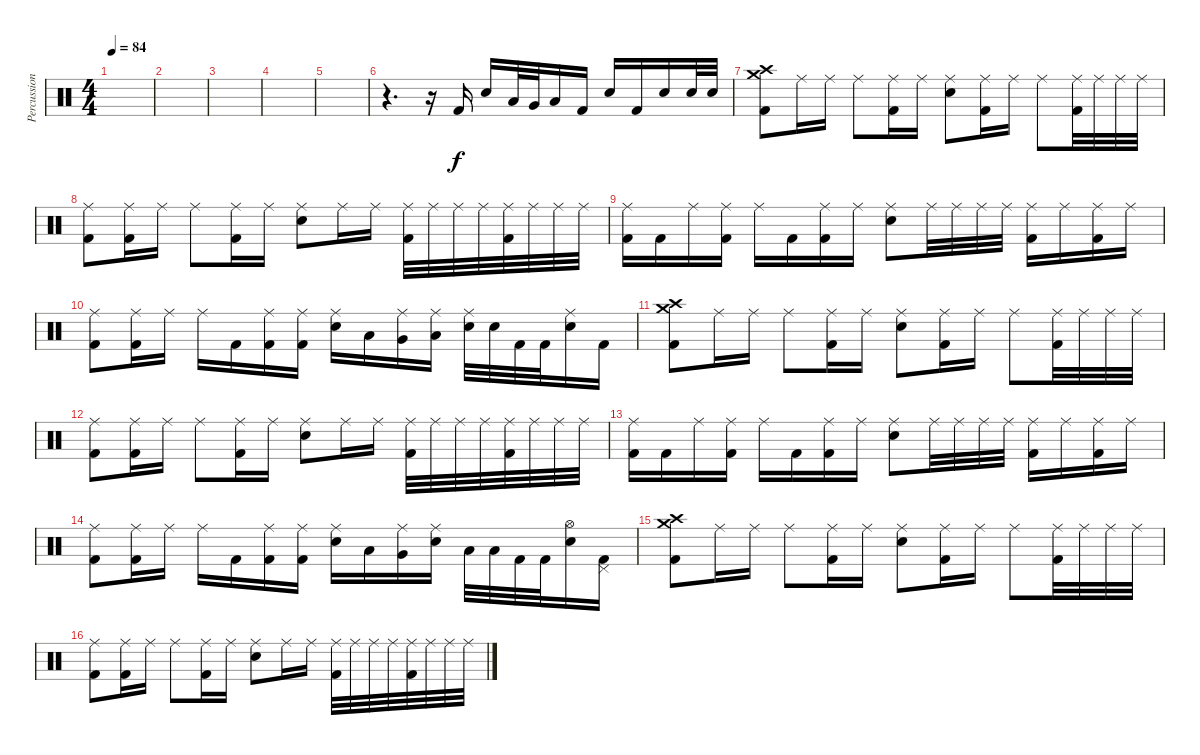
\track ("Percussion" "Percussion") {instrument percussion}
\staff {score}
\articulation defaults
\ts (4 4)
\tempo 84
\clef neutral
\ks c
|
|
|
|
|
r.4{d} r.16 "Kick (hit) 2".16 "Electric Snare (hit)".16 "Low Tom (hit)".32 "Very Low Tom (hit)".32 "Low Floor Tom (hit)".16 "Kick (hit) 2".16 "Electric Snare (hit)".16 "Kick (hit) 2".16 "Electric Snare (hit)".16 "Electric Snare (hit)".32 "Electric Snare (hit)".32 |
("Crash high (hit)" "Crash medium (hit)" "Kick (hit) 2").8 "Ride (middle)".16 "Ride (middle)".16 "Ride (middle)".8 ("Ride (middle)" "Kick (hit) 2").16 "Ride (middle)".16 ("Ride (middle)" "Electric Snare (hit)").8 ("Ride (middle)" "Kick (hit) 2").16 "Ride (middle)".16 "Ride (middle)".8 ("Ride (middle)" "Kick (hit) 2").32 "Ride (middle)".32 "Ride (middle)".32 "Ride (middle)".32 |
("Ride (middle)" "Kick (hit) 2").8 ("Ride (middle)" "Kick (hit) 2").16 "Ride (middle)".16 "Ride (middle)".8 ("Ride (middle)" "Kick (hit) 2").16 "Ride (middle)".16 ("Ride (middle)" "Electric Snare (hit)").8 "Ride (middle)".16 "Ride (middle)".16 ("Ride (middle)" "Kick (hit) 2").32 "Ride (middle)".32 "Ride (middle)".32 "Ride (middle)".32 ("Ride (middle)" "Kick (hit) 2").32 "Ride (middle)".32 "Ride (middle)".32 "Ride (middle)".32 |
("Ride (middle)" "Kick (hit) 2").16 "Kick (hit) 2".16 "Ride (middle)".16 ("Ride (middle)" "Kick (hit) 2").16 "Ride (middle)".16 "Kick (hit) 2".16 ("Ride (middle)" "Kick (hit) 2").16 "Ride (middle)".16 ("Ride (middle)" "Electric Snare (hit)").8 "Ride (middle)".32 "Ride (middle)".32 "Ride (middle)".32 "Ride (middle)".32 ("Ride (middle)" "Kick (hit) 2").16 "Ride (middle)".16 ("Ride (middle)" "Kick (hit) 2").16 "Ride (middle)".16 |
("Ride (middle)" "Kick (hit) 2").8 ("Ride (middle)" "Kick (hit) 2").16 "Ride (middle)".16 "Ride (middle)".16 "Kick (hit) 2".16 ("Ride (middle)" "Kick (hit) 2").16 ("Ride (middle)" "Kick (hit) 2").16 ("Ride (middle)" "Electric Snare (hit)").16 "Low Tom (hit)".16 ("Ride (middle)" "Very Low Tom (hit)").16 ("Ride (middle)" "Low Floor Tom (hit)").16 ("Ride (middle)" "Electric Snare (hit)").32 "Electric Snare (hit)".32 "Kick (hit) 2".32 "Kick (hit) 2".32 ("Ride (middle)" "Electric Snare (hit)").16 "Kick (hit) 2".16 |
("Crash high (hit)" "Crash medium (hit)" "Kick (hit) 2").8 "Ride (middle)".16 "Ride (middle)".16 "Ride (middle)".8 ("Ride (middle)" "Kick (hit) 2").16 "Ride (middle)".16 ("Ride (middle)" "Electric Snare (hit)").8 ("Ride (middle)" "Kick (hit) 2").16 "Ride (middle)".16 "Ride (middle)".8 ("Ride (middle)" "Kick (hit) 2").32 "Ride (middle)".32 "Ride (middle)".32 "Ride (middle)".32 |
("Ride (middle)" "Kick (hit) 2").8 ("Ride (middle)" "Kick (hit) 2").16 "Ride (middle)".16 "Ride (middle)".8 ("Ride (middle)" "Kick (hit) 2").16 "Ride (middle)".16 ("Ride (middle)" "Electric Snare (hit)").8 "Ride (middle)".16 "Ride (middle)".16 ("Ride (middle)" "Kick (hit) 2").32 "Ride (middle)".32 "Ride (middle)".32 "Ride (middle)".32 ("Ride (middle)" "Kick (hit) 2").32 "Ride (middle)".32 "Ride (middle)".32 "Ride (middle)".32 |
("Ride (middle)" "Kick (hit) 2").16 "Kick (hit) 2".16 "Ride (middle)".16 ("Ride (middle)" "Kick (hit) 2").16 "Ride (middle)".16 "Kick (hit) 2".16 ("Ride (middle)" "Kick (hit) 2").16 "Ride (middle)".16 ("Ride (middle)" "Electric Snare (hit)").8 "Ride (middle)".32 "Ride (middle)".32 "Ride (middle)".32 "Ride (middle)".32 ("Ride (middle)" "Kick (hit) 2").16 "Ride (middle)".16 ("Ride (middle)" "Kick (hit) 2").16 "Ride (middle)".16 |
("Ride (middle)" "Kick (hit) 2").8 ("Ride (middle)" "Kick (hit) 2").16 "Ride (middle)".16 "Ride (middle)".16 "Kick (hit) 2".16 ("Ride (middle)" "Kick (hit) 2").16 ("Ride (middle)" "Kick (hit) 2").16 ("Ride (middle)" "Electric Snare (hit)").16 "Low Tom (hit)".16 ("Ride (middle)" "Very Low Tom (hit)").16 ("Ride (middle)" "Electric Snare (hit)").16 "Low Floor Tom (hit)".32 "Low Floor Tom (hit)".32 "Kick (hit) 2".32 "Kick (hit) 2".32 ("Hi-Hat (open)" "Electric Snare (hit)").16 ("Pedal Hi-Hat (hit)" "Kick (hit) 2").16 |
("Crash high (hit)" "Crash medium (hit)" "Kick (hit) 2").8 "Ride (middle)".16 "Ride (middle)".16 "Ride (middle)".8 ("Ride (middle)" "Kick (hit) 2").16 "Ride (middle)".16 ("Ride (middle)" "Electric Snare (hit)").8 ("Ride (middle)" "Kick (hit) 2").16 "Ride (middle)".16 "Ride (middle)".8 ("Ride (middle)" "Kick (hit) 2").32 "Ride (middle)".32 "Ride (middle)".32 "Ride (middle)".32 |
("Ride (middle)" "Kick (hit) 2").8 ("Ride (middle)" "Kick (hit) 2").16 "Ride (middle)".16 "Ride (middle)".8 ("Ride (middle)" "Kick (hit) 2").16 "Ride (middle)".16 ("Ride (middle)" "Electric Snare (hit)").8 "Ride (middle)".16 "Ride (middle)".16 ("Ride (middle)" "Kick (hit) 2").32 "Ride (middle)".32 "Ride (middle)".32 "Ride (middle)".32 ("Ride (middle)" "Kick (hit) 2").32 "Ride (middle)".32 "Ride (middle)".32 "Ride (middle)".32
